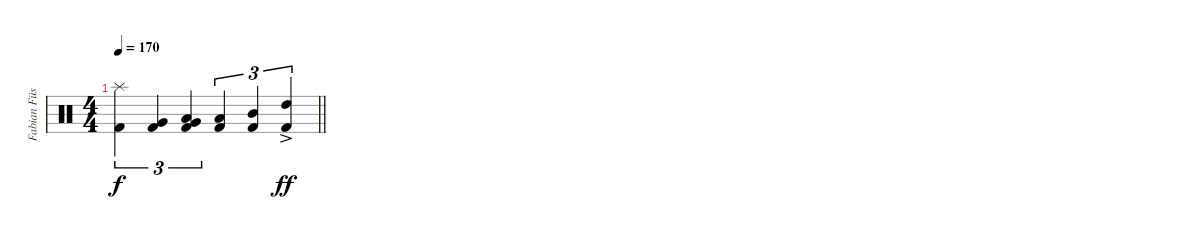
\track ("Fabian Füss" "Fabian Füs") {instrument percussion}
\staff {score}
\articulation defaults
\ts (4 4)
\tempo 170
\clef neutral
\barLineRight lightlight
\ks c
("Splash (hit)" "Kick (hit) 2").4{tu (3 2) dy f} ("Very Low Tom (hit)" "Kick (hit) 2").4{tu (3 2)} ("Low Tom (hit)" "Very Low Tom (hit)" "Kick (hit) 2").4{tu (3 2)} ("Low Tom (hit)" "Kick (hit) 2").4{tu (3 2)} ("Mid Tom (hit)" "Kick (hit) 2").4{tu (3 2)} ("High Tom (hit)"{ac} "Kick (hit) 2").4{tu (3 2) dy ff}
